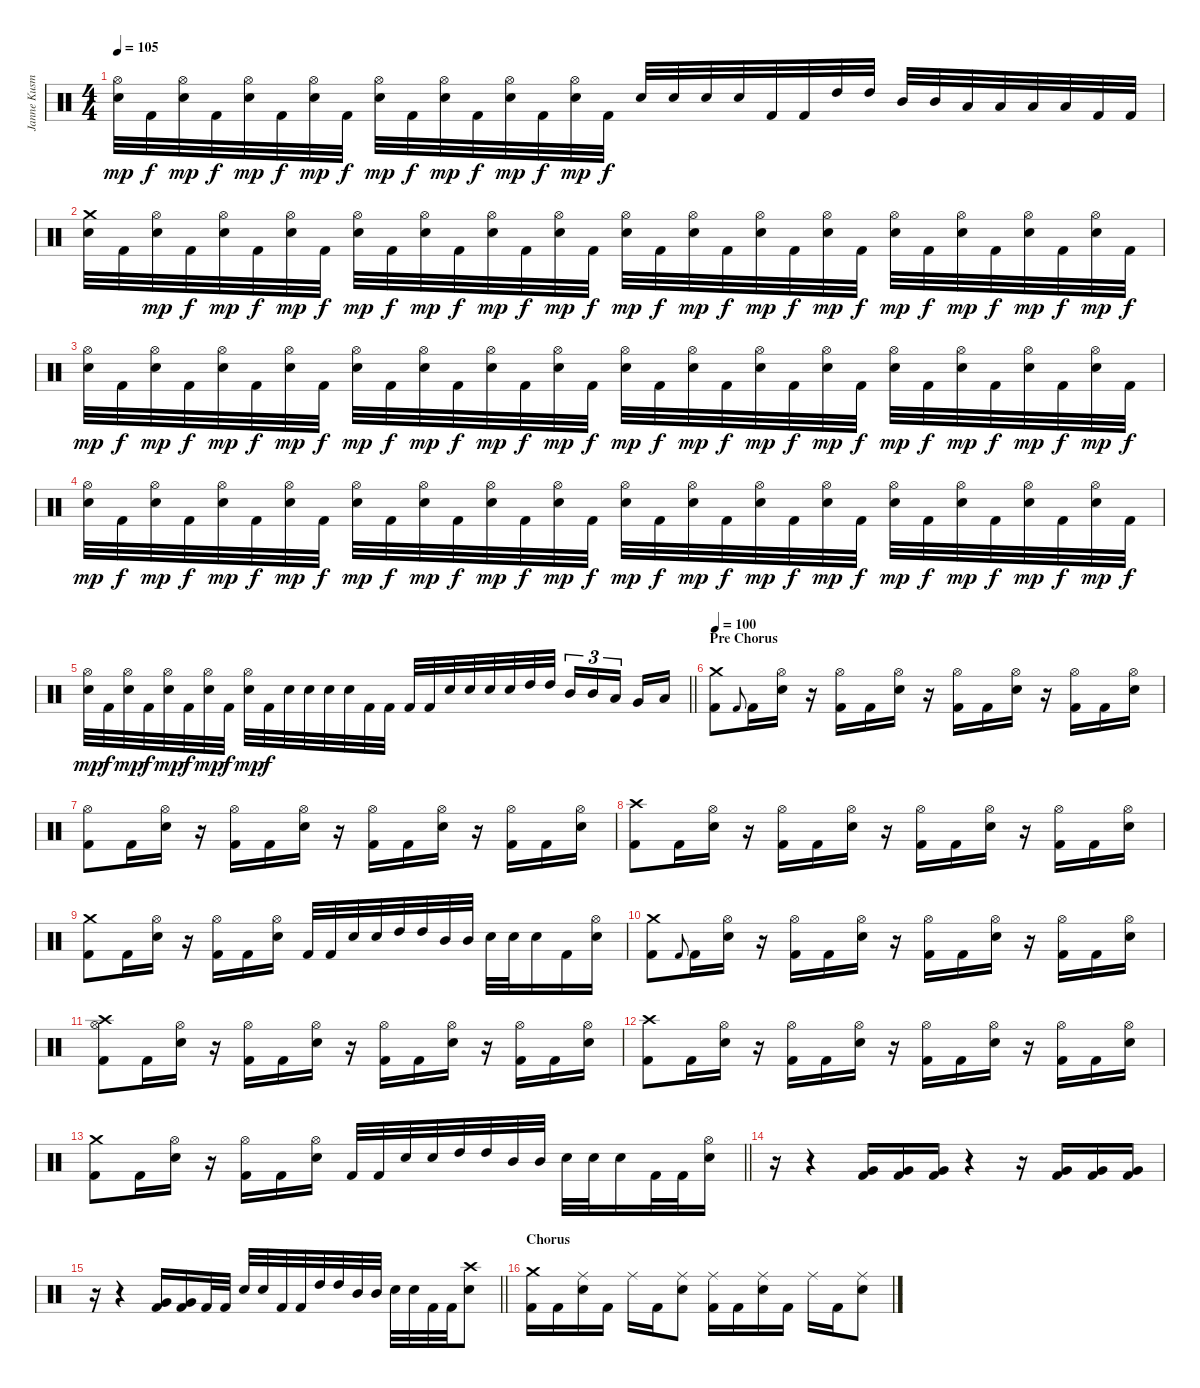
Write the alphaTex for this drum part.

\track ("Janne Kusmin " "Janne Kusm") {instrument percussion}
\staff {score}
\articulation defaults
\ts (4 4)
\tempo 105
\clef neutral
\ks c
("Hi-Hat (open)" "Electric Snare (hit)").32{dy mp} "Kick (hit) 2".32{dy f} ("Hi-Hat (open)" "Electric Snare (hit)").32{dy mp} "Kick (hit) 2".32{dy f} ("Hi-Hat (open)" "Electric Snare (hit)").32{dy mp} "Kick (hit) 2".32{dy f} ("Hi-Hat (open)" "Electric Snare (hit)").32{dy mp} "Kick (hit) 2".32{dy f} ("Hi-Hat (open)" "Electric Snare (hit)").32{dy mp} "Kick (hit) 2".32{dy f} ("Hi-Hat (open)" "Electric Snare (hit)").32{dy mp} "Kick (hit) 2".32{dy f} ("Hi-Hat (open)" "Electric Snare (hit)").32{dy mp} "Kick (hit) 2".32{dy f} ("Hi-Hat (open)" "Electric Snare (hit)").32{dy mp} "Kick (hit) 2".32{dy f} "Electric Snare (hit)".32 "Electric Snare (hit)".32 "Electric Snare (hit)".32 "Electric Snare (hit)".32 "Kick (hit) 2".32 "Kick (hit) 2".32 "High Tom (hit)".32 "High Tom (hit)".32 "Mid Tom (hit)".32 "Mid Tom (hit)".32 "Low Tom (hit)".32 "Low Tom (hit)".32 "Low Floor Tom (hit)".32 "Low Floor Tom (hit)".32 "Kick (hit) 2".32 "Kick (hit) 2".32 |
("Crash medium (hit)" "Electric Snare (hit)").32 "Kick (hit) 2".32 ("Hi-Hat (open)" "Electric Snare (hit)").32{dy mp} "Kick (hit) 2".32{dy f} ("Hi-Hat (open)" "Electric Snare (hit)").32{dy mp} "Kick (hit) 2".32{dy f} ("Hi-Hat (open)" "Electric Snare (hit)").32{dy mp} "Kick (hit) 2".32{dy f} ("Hi-Hat (open)" "Electric Snare (hit)").32{dy mp} "Kick (hit) 2".32{dy f} ("Hi-Hat (open)" "Electric Snare (hit)").32{dy mp} "Kick (hit) 2".32{dy f} ("Hi-Hat (open)" "Electric Snare (hit)").32{dy mp} "Kick (hit) 2".32{dy f} ("Hi-Hat (open)" "Electric Snare (hit)").32{dy mp} "Kick (hit) 2".32{dy f} ("Hi-Hat (open)" "Electric Snare (hit)").32{dy mp} "Kick (hit) 2".32{dy f} ("Hi-Hat (open)" "Electric Snare (hit)").32{dy mp} "Kick (hit) 2".32{dy f} ("Hi-Hat (open)" "Electric Snare (hit)").32{dy mp} "Kick (hit) 2".32{dy f} ("Hi-Hat (open)" "Electric Snare (hit)").32{dy mp} "Kick (hit) 2".32{dy f} ("Hi-Hat (open)" "Electric Snare (hit)").32{dy mp} "Kick (hit) 2".32{dy f} ("Hi-Hat (open)" "Electric Snare (hit)").32{dy mp} "Kick (hit) 2".32{dy f} ("Hi-Hat (open)" "Electric Snare (hit)").32{dy mp} "Kick (hit) 2".32{dy f} ("Hi-Hat (open)" "Electric Snare (hit)").32{dy mp} "Kick (hit) 2".32{dy f} |
("Hi-Hat (open)" "Electric Snare (hit)").32{dy mp} "Kick (hit) 2".32{dy f} ("Hi-Hat (open)" "Electric Snare (hit)").32{dy mp} "Kick (hit) 2".32{dy f} ("Hi-Hat (open)" "Electric Snare (hit)").32{dy mp} "Kick (hit) 2".32{dy f} ("Hi-Hat (open)" "Electric Snare (hit)").32{dy mp} "Kick (hit) 2".32{dy f} ("Hi-Hat (open)" "Electric Snare (hit)").32{dy mp} "Kick (hit) 2".32{dy f} ("Hi-Hat (open)" "Electric Snare (hit)").32{dy mp} "Kick (hit) 2".32{dy f} ("Hi-Hat (open)" "Electric Snare (hit)").32{dy mp} "Kick (hit) 2".32{dy f} ("Hi-Hat (open)" "Electric Snare (hit)").32{dy mp} "Kick (hit) 2".32{dy f} ("Hi-Hat (open)" "Electric Snare (hit)").32{dy mp} "Kick (hit) 2".32{dy f} ("Hi-Hat (open)" "Electric Snare (hit)").32{dy mp} "Kick (hit) 2".32{dy f} ("Hi-Hat (open)" "Electric Snare (hit)").32{dy mp} "Kick (hit) 2".32{dy f} ("Hi-Hat (open)" "Electric Snare (hit)").32{dy mp} "Kick (hit) 2".32{dy f} ("Hi-Hat (open)" "Electric Snare (hit)").32{dy mp} "Kick (hit) 2".32{dy f} ("Hi-Hat (open)" "Electric Snare (hit)").32{dy mp} "Kick (hit) 2".32{dy f} ("Hi-Hat (open)" "Electric Snare (hit)").32{dy mp} "Kick (hit) 2".32{dy f} ("Hi-Hat (open)" "Electric Snare (hit)").32{dy mp} "Kick (hit) 2".32{dy f} |
("Hi-Hat (open)" "Electric Snare (hit)").32{dy mp} "Kick (hit) 2".32{dy f} ("Hi-Hat (open)" "Electric Snare (hit)").32{dy mp} "Kick (hit) 2".32{dy f} ("Hi-Hat (open)" "Electric Snare (hit)").32{dy mp} "Kick (hit) 2".32{dy f} ("Hi-Hat (open)" "Electric Snare (hit)").32{dy mp} "Kick (hit) 2".32{dy f} ("Hi-Hat (open)" "Electric Snare (hit)").32{dy mp} "Kick (hit) 2".32{dy f} ("Hi-Hat (open)" "Electric Snare (hit)").32{dy mp} "Kick (hit) 2".32{dy f} ("Hi-Hat (open)" "Electric Snare (hit)").32{dy mp} "Kick (hit) 2".32{dy f} ("Hi-Hat (open)" "Electric Snare (hit)").32{dy mp} "Kick (hit) 2".32{dy f} ("Hi-Hat (open)" "Electric Snare (hit)").32{dy mp} "Kick (hit) 2".32{dy f} ("Hi-Hat (open)" "Electric Snare (hit)").32{dy mp} "Kick (hit) 2".32{dy f} ("Hi-Hat (open)" "Electric Snare (hit)").32{dy mp} "Kick (hit) 2".32{dy f} ("Hi-Hat (open)" "Electric Snare (hit)").32{dy mp} "Kick (hit) 2".32{dy f} ("Hi-Hat (open)" "Electric Snare (hit)").32{dy mp} "Kick (hit) 2".32{dy f} ("Hi-Hat (open)" "Electric Snare (hit)").32{dy mp} "Kick (hit) 2".32{dy f} ("Hi-Hat (open)" "Electric Snare (hit)").32{dy mp} "Kick (hit) 2".32{dy f} ("Hi-Hat (open)" "Electric Snare (hit)").32{dy mp} "Kick (hit) 2".32{dy f} |
\barLineRight lightlight
("Hi-Hat (open)" "Electric Snare (hit)").32{dy mp} "Kick (hit) 2".32{dy f} ("Hi-Hat (open)" "Electric Snare (hit)").32{dy mp} "Kick (hit) 2".32{dy f} ("Hi-Hat (open)" "Electric Snare (hit)").32{dy mp} "Kick (hit) 2".32{dy f} ("Hi-Hat (open)" "Electric Snare (hit)").32{dy mp} "Kick (hit) 2".32{dy f} ("Hi-Hat (open)" "Electric Snare (hit)").32{dy mp} "Kick (hit) 2".32{dy f} "Electric Snare (hit)".32 "Electric Snare (hit)".32 "Electric Snare (hit)".32 "Electric Snare (hit)".32 "Kick (hit) 2".32 "Kick (hit) 2".32 "Kick (hit) 2".32 "Kick (hit) 2".32 "Electric Snare (hit)".32 "Electric Snare (hit)".32 "Electric Snare (hit)".32 "Electric Snare (hit)".32 "High Tom (hit)".32 "High Tom (hit)".32 "Mid Tom (hit)".16{tu (3 2)} "Mid Tom (hit)".16{tu (3 2)} "Low Tom (hit)".16{tu (3 2) beam splitsecondary} "Very Low Tom (hit)".16 "Low Floor Tom (hit)".16 |
\section ("" "Pre Chorus")
\tempo 100
("Crash medium (hit)" "Kick (hit) 2").8 "Kick (hit) 2".8{gr onbeat} "Kick (hit) 2".16 ("Hi-Hat (open)" "Electric Snare (hit)").16 r.16 ("Hi-Hat (open)" "Kick (hit) 2").16 "Kick (hit) 2".16 ("Hi-Hat (open)" "Electric Snare (hit)").16 r.16 ("Hi-Hat (open)" "Kick (hit) 2").16 "Kick (hit) 2".16 ("Hi-Hat (open)" "Electric Snare (hit)").16 r.16 ("Hi-Hat (open)" "Kick (hit) 2").16 "Kick (hit) 2".16 ("Hi-Hat (open)" "Electric Snare (hit)").16 |
("Hi-Hat (open)" "Kick (hit) 2").8 "Kick (hit) 2".16 ("Hi-Hat (open)" "Electric Snare (hit)").16 r.16 ("Hi-Hat (open)" "Kick (hit) 2").16 "Kick (hit) 2".16 ("Hi-Hat (open)" "Electric Snare (hit)").16 r.16 ("Hi-Hat (open)" "Kick (hit) 2").16 "Kick (hit) 2".16 ("Hi-Hat (open)" "Electric Snare (hit)").16 r.16 ("Hi-Hat (open)" "Kick (hit) 2").16 "Kick (hit) 2".16 ("Hi-Hat (open)" "Electric Snare (hit)").16 |
("Crash high (hit)" "Kick (hit) 2").8 "Kick (hit) 2".16 ("Hi-Hat (open)" "Electric Snare (hit)").16 r.16 ("Hi-Hat (open)" "Kick (hit) 2").16 "Kick (hit) 2".16 ("Hi-Hat (open)" "Electric Snare (hit)").16 r.16 ("Hi-Hat (open)" "Kick (hit) 2").16 "Kick (hit) 2".16 ("Hi-Hat (open)" "Electric Snare (hit)").16 r.16 ("Hi-Hat (open)" "Kick (hit) 2").16 "Kick (hit) 2".16 ("Hi-Hat (open)" "Electric Snare (hit)").16 |
("Crash medium (hit)" "Kick (hit) 2").8 "Kick (hit) 2".16 ("Hi-Hat (open)" "Electric Snare (hit)").16 r.16 ("Hi-Hat (open)" "Kick (hit) 2").16 "Kick (hit) 2".16 ("Hi-Hat (open)" "Electric Snare (hit)").16 "Kick (hit) 2".32 "Kick (hit) 2".32 "Electric Snare (hit)".32 "Electric Snare (hit)".32 "High Tom (hit)".32 "High Tom (hit)".32 "Mid Tom (hit)".32 "Mid Tom (hit)".32 "Electric Snare (hit)".32 "Electric Snare (hit)".32 "Electric Snare (hit)".16 "Kick (hit) 2".16 ("Hi-Hat (open)" "Electric Snare (hit)").16 |
("Crash medium (hit)" "Kick (hit) 2").8 "Kick (hit) 2".8{gr onbeat} "Kick (hit) 2".16 ("Hi-Hat (open)" "Electric Snare (hit)").16 r.16 ("Hi-Hat (open)" "Kick (hit) 2").16 "Kick (hit) 2".16 ("Hi-Hat (open)" "Electric Snare (hit)").16 r.16 ("Hi-Hat (open)" "Kick (hit) 2").16 "Kick (hit) 2".16 ("Hi-Hat (open)" "Electric Snare (hit)").16 r.16 ("Hi-Hat (open)" "Kick (hit) 2").16 "Kick (hit) 2".16 ("Hi-Hat (open)" "Electric Snare (hit)").16 |
("Crash high (hit)" "Hi-Hat (open)" "Kick (hit) 2").8 "Kick (hit) 2".16 ("Hi-Hat (open)" "Electric Snare (hit)").16 r.16 ("Hi-Hat (open)" "Kick (hit) 2").16 "Kick (hit) 2".16 ("Hi-Hat (open)" "Electric Snare (hit)").16 r.16 ("Hi-Hat (open)" "Kick (hit) 2").16 "Kick (hit) 2".16 ("Hi-Hat (open)" "Electric Snare (hit)").16 r.16 ("Hi-Hat (open)" "Kick (hit) 2").16 "Kick (hit) 2".16 ("Hi-Hat (open)" "Electric Snare (hit)").16 |
("Crash high (hit)" "Kick (hit) 2").8 "Kick (hit) 2".16 ("Hi-Hat (open)" "Electric Snare (hit)").16 r.16 ("Hi-Hat (open)" "Kick (hit) 2").16 "Kick (hit) 2".16 ("Hi-Hat (open)" "Electric Snare (hit)").16 r.16 ("Hi-Hat (open)" "Kick (hit) 2").16 "Kick (hit) 2".16 ("Hi-Hat (open)" "Electric Snare (hit)").16 r.16 ("Hi-Hat (open)" "Kick (hit) 2").16 "Kick (hit) 2".16 ("Hi-Hat (open)" "Electric Snare (hit)").16 |
\barLineRight lightlight
("Crash medium (hit)" "Kick (hit) 2").8 "Kick (hit) 2".16 ("Hi-Hat (open)" "Electric Snare (hit)").16 r.16 ("Hi-Hat (open)" "Kick (hit) 2").16 "Kick (hit) 2".16 ("Hi-Hat (open)" "Electric Snare (hit)").16 "Kick (hit) 2".32 "Kick (hit) 2".32 "Electric Snare (hit)".32 "Electric Snare (hit)".32 "High Tom (hit)".32 "High Tom (hit)".32 "Mid Tom (hit)".32 "Mid Tom (hit)".32 "Electric Snare (hit)".32 "Electric Snare (hit)".32 "Electric Snare (hit)".16 "Kick (hit) 2".32 "Kick (hit) 2".32 ("Hi-Hat (open)" "Electric Snare (hit)").16 |
r.16 r.4 ("Very Low Tom (hit)" "Kick (hit) 2").16 ("Very Low Tom (hit)" "Kick (hit) 2").16 ("Very Low Tom (hit)" "Kick (hit) 2").16 r.4 r.16 ("Very Low Tom (hit)" "Kick (hit) 2").16 ("Very Low Tom (hit)" "Kick (hit) 2").16 ("Very Low Tom (hit)" "Kick (hit) 2").16 |
\barLineRight lightlight
r.16 r.4 ("Very Low Tom (hit)" "Kick (hit) 2").16 ("Very Low Tom (hit)" "Kick (hit) 2").16 "Kick (hit) 2".32 "Kick (hit) 2".32 "Electric Snare (hit)".32 "Electric Snare (hit)".32 "Kick (hit) 2".32 "Kick (hit) 2".32 "High Tom (hit)".32 "High Tom (hit)".32 "Mid Tom (hit)".32 "Mid Tom (hit)".32 "Electric Snare (hit)".32 "Electric Snare (hit)".32 "Kick (hit) 2".32 "Kick (hit) 2".32 ("Crash high (hit)" "Electric Snare (hit)").8 |
\section ("" "Chorus")
("Crash medium (hit)" "Kick (hit) 2").16 "Kick (hit) 2".16 ("Ride (middle)" "Electric Snare (hit)").16 "Kick (hit) 2".16 "Ride (middle)".16 "Kick (hit) 2".16 ("Ride (middle)" "Electric Snare (hit)").8 ("Ride (middle)" "Kick (hit) 2").16 "Kick (hit) 2".16 ("Ride (middle)" "Electric Snare (hit)").16 "Kick (hit) 2".16 "Ride (middle)".16 "Kick (hit) 2".16 ("Ride (middle)" "Electric Snare (hit)").8
